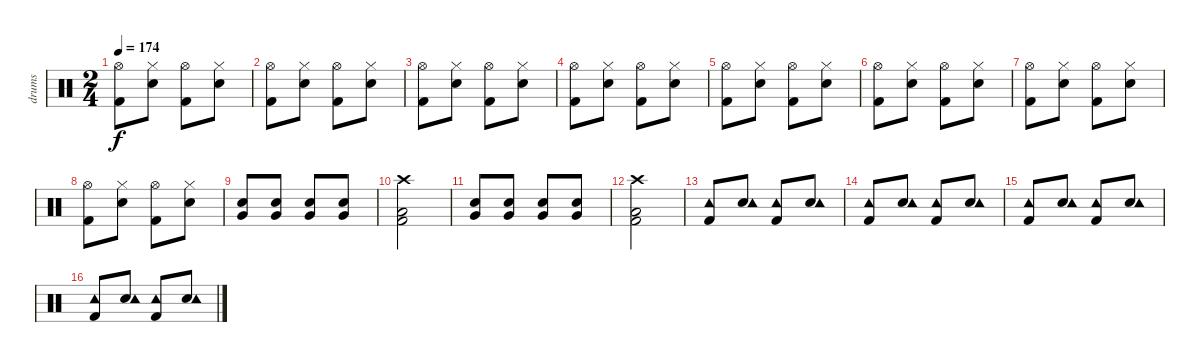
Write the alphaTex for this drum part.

\track ("drums" "drums") {instrument percussion}
\staff {score}
\articulation defaults
\ts (2 4)
\tempo 174
\clef neutral
\ks c
("Kick (hit) 2" "Hi-Hat (open)").8{dy f} ("Snare (hit) 2" "Hi-Hat (closed)").8 ("Kick (hit) 2" "Hi-Hat (open)").8 ("Snare (hit) 2" "Hi-Hat (closed)").8 |
("Kick (hit) 2" "Hi-Hat (open)").8 ("Snare (hit) 2" "Hi-Hat (closed)").8 ("Kick (hit) 2" "Hi-Hat (open)").8 ("Snare (hit) 2" "Hi-Hat (closed)").8 |
("Kick (hit) 2" "Hi-Hat (open)").8 ("Snare (hit) 2" "Hi-Hat (closed)").8 ("Kick (hit) 2" "Hi-Hat (open)").8 ("Snare (hit) 2" "Hi-Hat (closed)").8 |
("Hi-Hat (open)" "Kick (hit) 2").8 ("Snare (hit) 2" "Hi-Hat (closed)").8 ("Kick (hit) 2" "Hi-Hat (open)").8 ("Snare (hit) 2" "Hi-Hat (closed)").8 |
("Kick (hit) 2" "Hi-Hat (open)").8 ("Snare (hit) 2" "Hi-Hat (closed)").8 ("Kick (hit) 2" "Hi-Hat (open)").8 ("Snare (hit) 2" "Hi-Hat (closed)").8 |
("Kick (hit) 2" "Hi-Hat (open)").8 ("Snare (hit) 2" "Hi-Hat (closed)").8 ("Kick (hit) 2" "Hi-Hat (open)").8 ("Snare (hit) 2" "Hi-Hat (closed)").8 |
("Kick (hit) 2" "Hi-Hat (open)").8 ("Snare (hit) 2" "Hi-Hat (closed)").8 ("Kick (hit) 2" "Hi-Hat (open)").8 ("Snare (hit) 2" "Hi-Hat (closed)").8 |
("Hi-Hat (open)" "Kick (hit) 2").8 ("Snare (hit) 2" "Hi-Hat (closed)").8 ("Kick (hit) 2" "Hi-Hat (open)").8 ("Snare (hit) 2" "Hi-Hat (closed)").8 |
("Snare (hit) 2" "Very Low Tom (hit)").8 ("Snare (hit) 2" "Very Low Tom (hit)").8 ("Snare (hit) 2" "Very Low Tom (hit)").8 ("Snare (hit) 2" "Very Low Tom (hit)").8 |
("Kick (hit) 2" "Low Floor Tom (hit)" "Crash high (hit)").2 |
("Very Low Tom (hit)" "Snare (hit) 2").8 ("Snare (hit) 2" "Very Low Tom (hit)").8 ("Snare (hit) 2" "Very Low Tom (hit)").8 ("Snare (hit) 2" "Very Low Tom (hit)").8 |
("Crash high (hit)" "Low Floor Tom (hit)" "Kick (hit) 2").2 |
("Tambourine (hit)" "Kick (hit) 2").8 ("Snare (hit) 2" "Tambourine (hit)").8 ("Kick (hit) 2" "Tambourine (hit)").8 ("Snare (hit) 2" "Tambourine (hit)").8 |
("Tambourine (hit)" "Kick (hit) 2").8 ("Snare (hit) 2" "Tambourine (hit)").8 ("Kick (hit) 2" "Tambourine (hit)").8 ("Snare (hit) 2" "Tambourine (hit)").8 |
("Tambourine (hit)" "Kick (hit) 2").8 ("Snare (hit) 2" "Tambourine (hit)").8 ("Kick (hit) 2" "Tambourine (hit)").8 ("Snare (hit) 2" "Tambourine (hit)").8 |
("Tambourine (hit)" "Kick (hit) 2").8 ("Snare (hit) 2" "Tambourine (hit)").8 ("Kick (hit) 2" "Tambourine (hit)").8 ("Snare (hit) 2" "Tambourine (hit)").8
